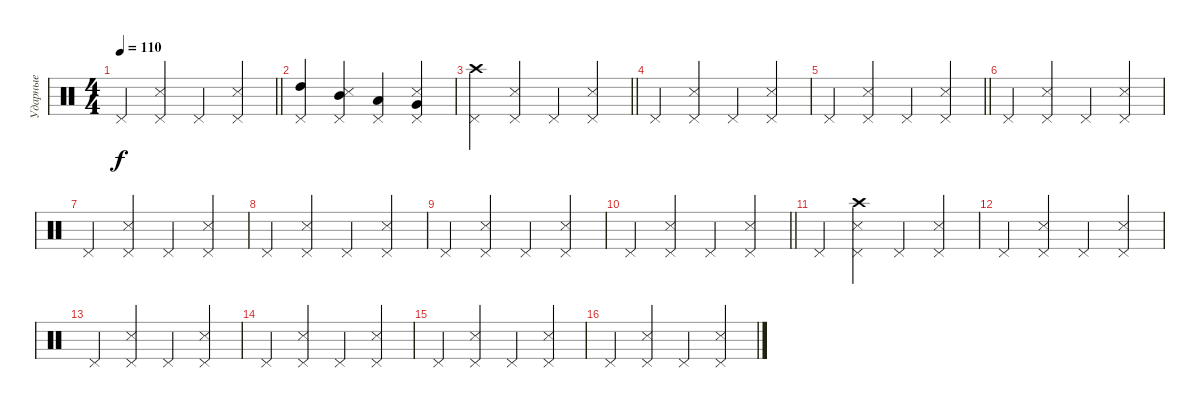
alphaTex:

\track ("Ударные" "Ударные") {instrument percussion}
\staff {score}
\articulation defaults
\ts (4 4)
\tempo 110
\clef neutral
\barLineRight lightlight
\ks c "Pedal Hi-Hat (hit)".4{dy f}
("Pedal Hi-Hat (hit)" "Snare (side stick) 3").4 "Pedal Hi-Hat (hit)".4 ("Pedal Hi-Hat (hit)" "Snare (side stick) 3").4 |
("Pedal Hi-Hat (hit)" "High Tom (hit)").4 ("Pedal Hi-Hat (hit)" "Snare (side stick) 3" "Mid Tom (hit)").4 ("Pedal Hi-Hat (hit)" "Low Tom (hit)").4 ("Pedal Hi-Hat (hit)" "Snare (side stick) 3" "Very Low Tom (hit)").4 |
\barLineRight lightlight
("Pedal Hi-Hat (hit)" "Crash high (hit)").4 ("Pedal Hi-Hat (hit)" "Snare (side stick) 3").4 "Pedal Hi-Hat (hit)".4 ("Pedal Hi-Hat (hit)" "Snare (side stick) 3").4 |
"Pedal Hi-Hat (hit)".4 ("Pedal Hi-Hat (hit)" "Snare (side stick) 3").4 "Pedal Hi-Hat (hit)".4 ("Pedal Hi-Hat (hit)" "Snare (side stick) 3").4 |
\barLineRight lightlight "Pedal Hi-Hat (hit)".4
("Pedal Hi-Hat (hit)" "Snare (side stick) 3").4 "Pedal Hi-Hat (hit)".4 ("Pedal Hi-Hat (hit)" "Snare (side stick) 3").4 |
"Pedal Hi-Hat (hit)".4 ("Pedal Hi-Hat (hit)" "Snare (side stick) 3").4 "Pedal Hi-Hat (hit)".4 ("Pedal Hi-Hat (hit)" "Snare (side stick) 3").4 |
"Pedal Hi-Hat (hit)".4 ("Pedal Hi-Hat (hit)" "Snare (side stick) 3").4 "Pedal Hi-Hat (hit)".4 ("Pedal Hi-Hat (hit)" "Snare (side stick) 3").4 |
"Pedal Hi-Hat (hit)".4 ("Pedal Hi-Hat (hit)" "Snare (side stick) 3").4 "Pedal Hi-Hat (hit)".4 ("Pedal Hi-Hat (hit)" "Snare (side stick) 3").4 |
"Pedal Hi-Hat (hit)".4 ("Pedal Hi-Hat (hit)" "Snare (side stick) 3").4 "Pedal Hi-Hat (hit)".4 ("Pedal Hi-Hat (hit)" "Snare (side stick) 3").4 |
\barLineRight lightlight "Pedal Hi-Hat (hit)".4
("Pedal Hi-Hat (hit)" "Snare (side stick) 3").4 "Pedal Hi-Hat (hit)".4 ("Pedal Hi-Hat (hit)" "Snare (side stick) 3").4 |
"Pedal Hi-Hat (hit)".4 ("Pedal Hi-Hat (hit)" "Snare (side stick) 3" "Crash high (hit)").4 "Pedal Hi-Hat (hit)".4 ("Pedal Hi-Hat (hit)" "Snare (side stick) 3").4 |
"Pedal Hi-Hat (hit)".4 ("Pedal Hi-Hat (hit)" "Snare (side stick) 3").4 "Pedal Hi-Hat (hit)".4 ("Pedal Hi-Hat (hit)" "Snare (side stick) 3").4 |
"Pedal Hi-Hat (hit)".4 ("Pedal Hi-Hat (hit)" "Snare (side stick) 3").4 "Pedal Hi-Hat (hit)".4 ("Pedal Hi-Hat (hit)" "Snare (side stick) 3").4 |
"Pedal Hi-Hat (hit)".4 ("Pedal Hi-Hat (hit)" "Snare (side stick) 3").4 "Pedal Hi-Hat (hit)".4 ("Pedal Hi-Hat (hit)" "Snare (side stick) 3").4 |
"Pedal Hi-Hat (hit)".4 ("Pedal Hi-Hat (hit)" "Snare (side stick) 3").4 "Pedal Hi-Hat (hit)".4 ("Pedal Hi-Hat (hit)" "Snare (side stick) 3").4 |
"Pedal Hi-Hat (hit)".4 ("Pedal Hi-Hat (hit)" "Snare (side stick) 3").4 "Pedal Hi-Hat (hit)".4 ("Pedal Hi-Hat (hit)" "Snare (side stick) 3").4
